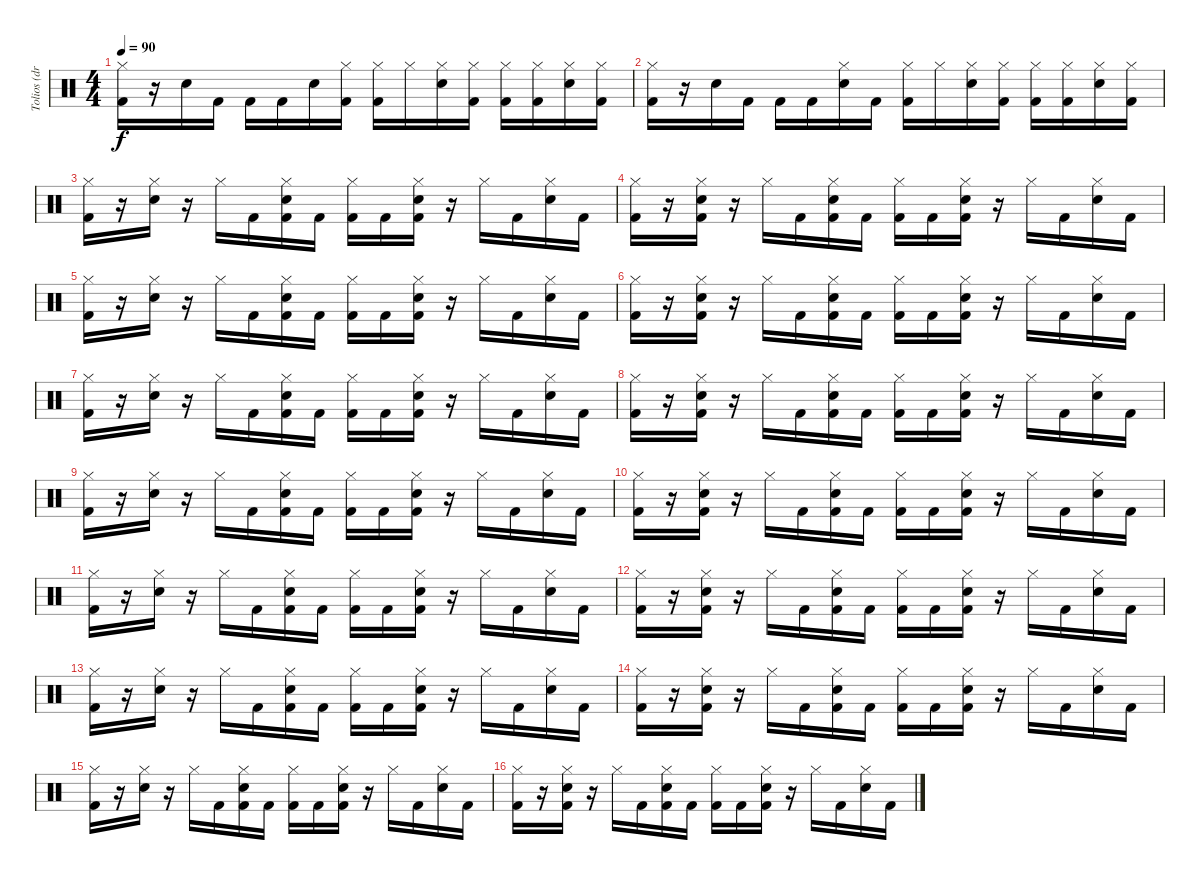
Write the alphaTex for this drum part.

\track ("Tolios (drums)" "Tolios (dr") {instrument percussion}
\staff {score}
\articulation defaults
\ts (4 4)
\tempo 90
\clef neutral
\ks c
("Hi-Hat (closed)" "Kick (hit) 2").16{dy f} r.16 "Snare (hit) 2".16 "Kick (hit) 2".16 "Kick (hit) 2".16 "Kick (hit) 2".16 "Snare (hit) 2".16 ("Hi-Hat (closed)" "Kick (hit) 2").16 ("Hi-Hat (closed)" "Kick (hit) 2").16 "Hi-Hat (closed)".16 ("Hi-Hat (closed)" "Snare (hit) 2").16 ("Hi-Hat (closed)" "Kick (hit) 2").16 ("Hi-Hat (closed)" "Kick (hit) 2").16 ("Kick (hit) 2" "Hi-Hat (closed)").16 ("Hi-Hat (closed)" "Snare (hit) 2").16 ("Kick (hit) 2" "Hi-Hat (closed)").16 |
("Hi-Hat (closed)" "Kick (hit) 2").16 r.16 "Snare (hit) 2".16 "Kick (hit) 2".16 "Kick (hit) 2".16 "Kick (hit) 2".16 ("Hi-Hat (closed)" "Snare (hit) 2").16 "Kick (hit) 2".16 ("Hi-Hat (closed)" "Kick (hit) 2").16 "Hi-Hat (closed)".16 ("Hi-Hat (closed)" "Snare (hit) 2").16 ("Hi-Hat (closed)" "Kick (hit) 2").16 ("Hi-Hat (closed)" "Kick (hit) 2").16 ("Kick (hit) 2" "Hi-Hat (closed)").16 ("Hi-Hat (closed)" "Snare (hit) 2").16 ("Kick (hit) 2" "Hi-Hat (closed)").16 |
("Hi-Hat (closed)" "Kick (hit) 2").16 r.16 ("Hi-Hat (closed)" "Snare (hit) 2").16 r.16 "Hi-Hat (closed)".16 "Kick (hit) 2".16 ("Kick (hit) 2" "Hi-Hat (closed)" "Snare (hit) 2").16 "Kick (hit) 2".16 ("Kick (hit) 2" "Hi-Hat (closed)").16 "Kick (hit) 2".16 ("Snare (hit) 2" "Kick (hit) 2" "Hi-Hat (closed)").16 r.16 "Hi-Hat (closed)".16 "Kick (hit) 2".16 ("Snare (hit) 2" "Hi-Hat (closed)").16 "Kick (hit) 2".16 |
("Hi-Hat (closed)" "Kick (hit) 2").16 r.16 ("Hi-Hat (closed)" "Kick (hit) 2" "Snare (hit) 2").16 r.16 "Hi-Hat (closed)".16 "Kick (hit) 2".16 ("Kick (hit) 2" "Hi-Hat (closed)" "Snare (hit) 2").16 "Kick (hit) 2".16 ("Kick (hit) 2" "Hi-Hat (closed)").16 "Kick (hit) 2".16 ("Snare (hit) 2" "Kick (hit) 2" "Hi-Hat (closed)").16 r.16 "Hi-Hat (closed)".16 "Kick (hit) 2".16 ("Snare (hit) 2" "Hi-Hat (closed)").16 "Kick (hit) 2".16 |
("Hi-Hat (closed)" "Kick (hit) 2").16 r.16 ("Hi-Hat (closed)" "Snare (hit) 2").16 r.16 "Hi-Hat (closed)".16 "Kick (hit) 2".16 ("Kick (hit) 2" "Hi-Hat (closed)" "Snare (hit) 2").16 "Kick (hit) 2".16 ("Kick (hit) 2" "Hi-Hat (closed)").16 "Kick (hit) 2".16 ("Snare (hit) 2" "Kick (hit) 2" "Hi-Hat (closed)").16 r.16 "Hi-Hat (closed)".16 "Kick (hit) 2".16 ("Snare (hit) 2" "Hi-Hat (closed)").16 "Kick (hit) 2".16 |
("Hi-Hat (closed)" "Kick (hit) 2").16 r.16 ("Hi-Hat (closed)" "Kick (hit) 2" "Snare (hit) 2").16 r.16 "Hi-Hat (closed)".16 "Kick (hit) 2".16 ("Kick (hit) 2" "Hi-Hat (closed)" "Snare (hit) 2").16 "Kick (hit) 2".16 ("Kick (hit) 2" "Hi-Hat (closed)").16 "Kick (hit) 2".16 ("Snare (hit) 2" "Kick (hit) 2" "Hi-Hat (closed)").16 r.16 "Hi-Hat (closed)".16 "Kick (hit) 2".16 ("Snare (hit) 2" "Hi-Hat (closed)").16 "Kick (hit) 2".16 |
("Hi-Hat (closed)" "Kick (hit) 2").16 r.16 ("Hi-Hat (closed)" "Snare (hit) 2").16 r.16 "Hi-Hat (closed)".16 "Kick (hit) 2".16 ("Kick (hit) 2" "Hi-Hat (closed)" "Snare (hit) 2").16 "Kick (hit) 2".16 ("Kick (hit) 2" "Hi-Hat (closed)").16 "Kick (hit) 2".16 ("Snare (hit) 2" "Kick (hit) 2" "Hi-Hat (closed)").16 r.16 "Hi-Hat (closed)".16 "Kick (hit) 2".16 ("Snare (hit) 2" "Hi-Hat (closed)").16 "Kick (hit) 2".16 |
("Hi-Hat (closed)" "Kick (hit) 2").16 r.16 ("Hi-Hat (closed)" "Kick (hit) 2" "Snare (hit) 2").16 r.16 "Hi-Hat (closed)".16 "Kick (hit) 2".16 ("Kick (hit) 2" "Hi-Hat (closed)" "Snare (hit) 2").16 "Kick (hit) 2".16 ("Kick (hit) 2" "Hi-Hat (closed)").16 "Kick (hit) 2".16 ("Snare (hit) 2" "Kick (hit) 2" "Hi-Hat (closed)").16 r.16 "Hi-Hat (closed)".16 "Kick (hit) 2".16 ("Snare (hit) 2" "Hi-Hat (closed)").16 "Kick (hit) 2".16 |
("Hi-Hat (closed)" "Kick (hit) 2").16 r.16 ("Hi-Hat (closed)" "Snare (hit) 2").16 r.16 "Hi-Hat (closed)".16 "Kick (hit) 2".16 ("Kick (hit) 2" "Hi-Hat (closed)" "Snare (hit) 2").16 "Kick (hit) 2".16 ("Kick (hit) 2" "Hi-Hat (closed)").16 "Kick (hit) 2".16 ("Snare (hit) 2" "Kick (hit) 2" "Hi-Hat (closed)").16 r.16 "Hi-Hat (closed)".16 "Kick (hit) 2".16 ("Snare (hit) 2" "Hi-Hat (closed)").16 "Kick (hit) 2".16 |
("Hi-Hat (closed)" "Kick (hit) 2").16 r.16 ("Hi-Hat (closed)" "Kick (hit) 2" "Snare (hit) 2").16 r.16 "Hi-Hat (closed)".16 "Kick (hit) 2".16 ("Kick (hit) 2" "Hi-Hat (closed)" "Snare (hit) 2").16 "Kick (hit) 2".16 ("Kick (hit) 2" "Hi-Hat (closed)").16 "Kick (hit) 2".16 ("Snare (hit) 2" "Kick (hit) 2" "Hi-Hat (closed)").16 r.16 "Hi-Hat (closed)".16 "Kick (hit) 2".16 ("Snare (hit) 2" "Hi-Hat (closed)").16 "Kick (hit) 2".16 |
("Hi-Hat (closed)" "Kick (hit) 2").16 r.16 ("Hi-Hat (closed)" "Snare (hit) 2").16 r.16 "Hi-Hat (closed)".16 "Kick (hit) 2".16 ("Kick (hit) 2" "Hi-Hat (closed)" "Snare (hit) 2").16 "Kick (hit) 2".16 ("Kick (hit) 2" "Hi-Hat (closed)").16 "Kick (hit) 2".16 ("Snare (hit) 2" "Kick (hit) 2" "Hi-Hat (closed)").16 r.16 "Hi-Hat (closed)".16 "Kick (hit) 2".16 ("Snare (hit) 2" "Hi-Hat (closed)").16 "Kick (hit) 2".16 |
("Hi-Hat (closed)" "Kick (hit) 2").16 r.16 ("Hi-Hat (closed)" "Kick (hit) 2" "Snare (hit) 2").16 r.16 "Hi-Hat (closed)".16 "Kick (hit) 2".16 ("Kick (hit) 2" "Hi-Hat (closed)" "Snare (hit) 2").16 "Kick (hit) 2".16 ("Kick (hit) 2" "Hi-Hat (closed)").16 "Kick (hit) 2".16 ("Snare (hit) 2" "Kick (hit) 2" "Hi-Hat (closed)").16 r.16 "Hi-Hat (closed)".16 "Kick (hit) 2".16 ("Snare (hit) 2" "Hi-Hat (closed)").16 "Kick (hit) 2".16 |
("Hi-Hat (closed)" "Kick (hit) 2").16 r.16 ("Hi-Hat (closed)" "Snare (hit) 2").16 r.16 "Hi-Hat (closed)".16 "Kick (hit) 2".16 ("Kick (hit) 2" "Hi-Hat (closed)" "Snare (hit) 2").16 "Kick (hit) 2".16 ("Kick (hit) 2" "Hi-Hat (closed)").16 "Kick (hit) 2".16 ("Snare (hit) 2" "Kick (hit) 2" "Hi-Hat (closed)").16 r.16 "Hi-Hat (closed)".16 "Kick (hit) 2".16 ("Snare (hit) 2" "Hi-Hat (closed)").16 "Kick (hit) 2".16 |
("Hi-Hat (closed)" "Kick (hit) 2").16 r.16 ("Hi-Hat (closed)" "Kick (hit) 2" "Snare (hit) 2").16 r.16 "Hi-Hat (closed)".16 "Kick (hit) 2".16 ("Kick (hit) 2" "Hi-Hat (closed)" "Snare (hit) 2").16 "Kick (hit) 2".16 ("Kick (hit) 2" "Hi-Hat (closed)").16 "Kick (hit) 2".16 ("Snare (hit) 2" "Kick (hit) 2" "Hi-Hat (closed)").16 r.16 "Hi-Hat (closed)".16 "Kick (hit) 2".16 ("Snare (hit) 2" "Hi-Hat (closed)").16 "Kick (hit) 2".16 |
("Hi-Hat (closed)" "Kick (hit) 2").16 r.16 ("Hi-Hat (closed)" "Snare (hit) 2").16 r.16 "Hi-Hat (closed)".16 "Kick (hit) 2".16 ("Kick (hit) 2" "Hi-Hat (closed)" "Snare (hit) 2").16 "Kick (hit) 2".16 ("Kick (hit) 2" "Hi-Hat (closed)").16 "Kick (hit) 2".16 ("Snare (hit) 2" "Kick (hit) 2" "Hi-Hat (closed)").16 r.16 "Hi-Hat (closed)".16 "Kick (hit) 2".16 ("Snare (hit) 2" "Hi-Hat (closed)").16 "Kick (hit) 2".16 |
("Hi-Hat (closed)" "Kick (hit) 2").16 r.16 ("Hi-Hat (closed)" "Kick (hit) 2" "Snare (hit) 2").16 r.16 "Hi-Hat (closed)".16 "Kick (hit) 2".16 ("Kick (hit) 2" "Hi-Hat (closed)" "Snare (hit) 2").16 "Kick (hit) 2".16 ("Kick (hit) 2" "Hi-Hat (closed)").16 "Kick (hit) 2".16 ("Snare (hit) 2" "Kick (hit) 2" "Hi-Hat (closed)").16 r.16 "Hi-Hat (closed)".16 "Kick (hit) 2".16 ("Snare (hit) 2" "Hi-Hat (closed)").16 "Kick (hit) 2".16
